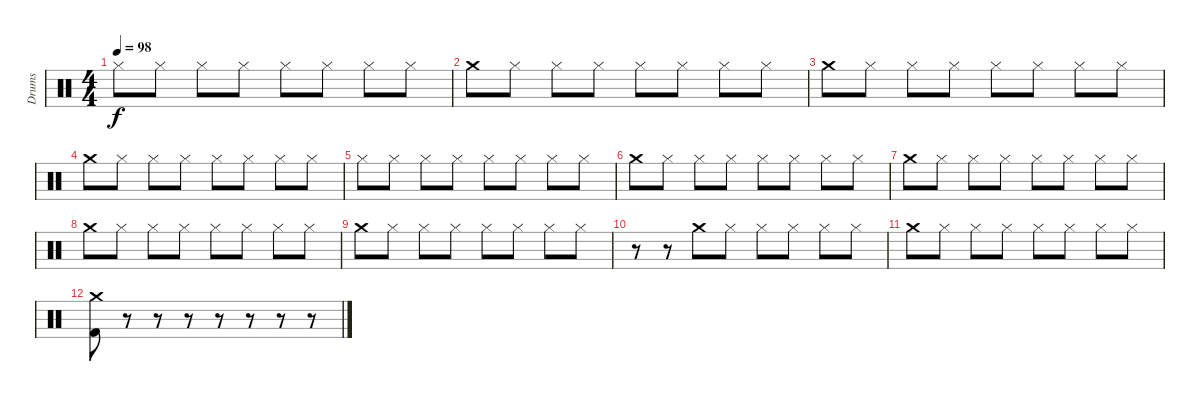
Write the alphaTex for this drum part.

\track ("Drums" "Drums") {instrument percussion}
\staff {score}
\articulation defaults
\ts (4 4)
\tempo 98
\clef neutral
\ks c "Hi-Hat (closed)".8{dy f} "Hi-Hat (closed)".8 "Hi-Hat (closed)".8 "Hi-Hat (closed)".8 "Hi-Hat (closed)".8 "Hi-Hat (closed)".8 "Hi-Hat (closed)".8 "Hi-Hat (closed)".8
|
"Crash medium (hit)".8 "Hi-Hat (closed)".8 "Hi-Hat (closed)".8 "Hi-Hat (closed)".8 "Hi-Hat (closed)".8 "Hi-Hat (closed)".8 "Hi-Hat (closed)".8 "Hi-Hat (closed)".8 |
"Crash medium (hit)".8 "Hi-Hat (closed)".8 "Hi-Hat (closed)".8 "Hi-Hat (closed)".8 "Hi-Hat (closed)".8 "Hi-Hat (closed)".8 "Hi-Hat (closed)".8 "Hi-Hat (closed)".8 |
"Crash medium (hit)".8 "Hi-Hat (closed)".8 "Hi-Hat (closed)".8 "Hi-Hat (closed)".8 "Hi-Hat (closed)".8 "Hi-Hat (closed)".8 "Hi-Hat (closed)".8 "Hi-Hat (closed)".8 |
"Hi-Hat (closed)".8 "Hi-Hat (closed)".8 "Hi-Hat (closed)".8 "Hi-Hat (closed)".8 "Hi-Hat (closed)".8 "Hi-Hat (closed)".8 "Hi-Hat (closed)".8 "Hi-Hat (closed)".8 |
"Crash medium (hit)".8 "Hi-Hat (closed)".8 "Hi-Hat (closed)".8 "Hi-Hat (closed)".8 "Hi-Hat (closed)".8 "Hi-Hat (closed)".8 "Hi-Hat (closed)".8 "Hi-Hat (closed)".8 |
"Crash medium (hit)".8 "Hi-Hat (closed)".8 "Hi-Hat (closed)".8 "Hi-Hat (closed)".8 "Hi-Hat (closed)".8 "Hi-Hat (closed)".8 "Hi-Hat (closed)".8 "Hi-Hat (closed)".8 |
"Crash medium (hit)".8 "Hi-Hat (closed)".8 "Hi-Hat (closed)".8 "Hi-Hat (closed)".8 "Hi-Hat (closed)".8 "Hi-Hat (closed)".8 "Hi-Hat (closed)".8 "Hi-Hat (closed)".8 |
"Crash medium (hit)".8 "Hi-Hat (closed)".8 "Hi-Hat (closed)".8 "Hi-Hat (closed)".8 "Hi-Hat (closed)".8 "Hi-Hat (closed)".8 "Hi-Hat (closed)".8 "Hi-Hat (closed)".8 |
r.8 r.8 "Crash medium (hit)".8 "Hi-Hat (closed)".8 "Hi-Hat (closed)".8 "Hi-Hat (closed)".8 "Hi-Hat (closed)".8 "Hi-Hat (closed)".8 |
"Crash medium (hit)".8 "Hi-Hat (closed)".8 "Hi-Hat (closed)".8 "Hi-Hat (closed)".8 "Hi-Hat (closed)".8 "Hi-Hat (closed)".8 "Hi-Hat (closed)".8 "Hi-Hat (closed)".8 |
("Crash medium (hit)" "Kick (hit) 2").8 r.8 r.8 r.8 r.8 r.8 r.8 r.8
